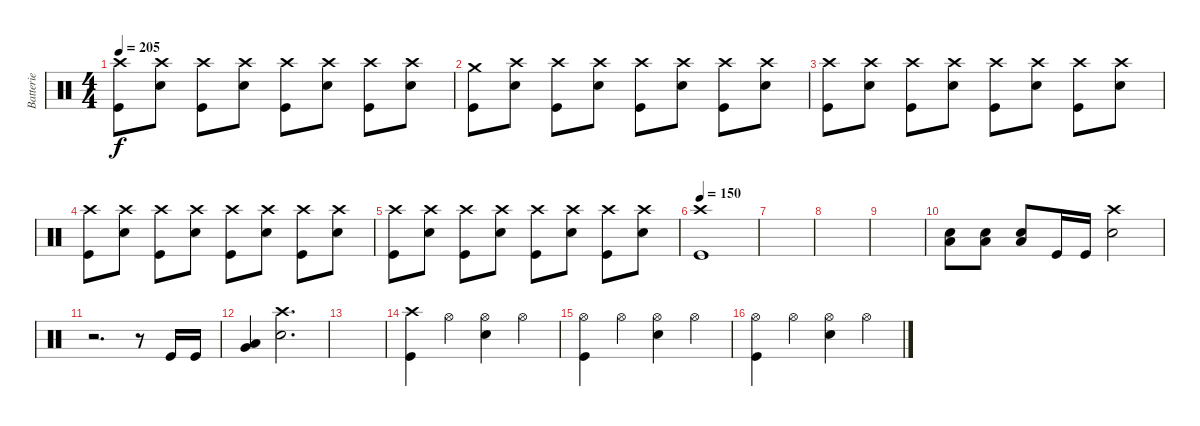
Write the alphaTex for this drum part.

\track ("Batterie" "Batterie") {instrument percussion}
\staff {score}
\articulation defaults
\ts (4 4)
\tempo 205
\clef neutral
\ks c
("Crash high (hit)" "Kick (hit)").8{dy f} ("Crash high (hit)" "Electric Snare (hit)").8 ("Crash high (hit)" "Kick (hit)").8 ("Crash high (hit)" "Electric Snare (hit)").8 ("Crash high (hit)" "Kick (hit)").8 ("Crash high (hit)" "Electric Snare (hit)").8 ("Crash high (hit)" "Kick (hit)").8 ("Crash high (hit)" "Electric Snare (hit)").8 |
("Crash medium (hit)" "Kick (hit)").8 ("Crash high (hit)" "Electric Snare (hit)").8 ("Crash high (hit)" "Kick (hit)").8 ("Crash high (hit)" "Electric Snare (hit)").8 ("Crash high (hit)" "Kick (hit)").8 ("Crash high (hit)" "Electric Snare (hit)").8 ("Crash high (hit)" "Kick (hit)").8 ("Crash high (hit)" "Electric Snare (hit)").8 |
("Crash high (hit)" "Kick (hit)").8 ("Crash high (hit)" "Electric Snare (hit)").8 ("Crash high (hit)" "Kick (hit)").8 ("Crash high (hit)" "Electric Snare (hit)").8 ("Crash high (hit)" "Kick (hit)").8 ("Crash high (hit)" "Electric Snare (hit)").8 ("Crash high (hit)" "Kick (hit)").8 ("Crash high (hit)" "Electric Snare (hit)").8 |
("Crash high (hit)" "Kick (hit)").8 ("Crash high (hit)" "Electric Snare (hit)").8 ("Crash high (hit)" "Kick (hit)").8 ("Crash high (hit)" "Electric Snare (hit)").8 ("Crash high (hit)" "Kick (hit)").8 ("Crash high (hit)" "Electric Snare (hit)").8 ("Crash high (hit)" "Kick (hit)").8 ("Crash high (hit)" "Electric Snare (hit)").8 |
("Crash high (hit)" "Kick (hit)").8 ("Crash high (hit)" "Electric Snare (hit)").8 ("Crash high (hit)" "Kick (hit)").8 ("Crash high (hit)" "Electric Snare (hit)").8 ("Crash high (hit)" "Kick (hit)").8 ("Crash high (hit)" "Electric Snare (hit)").8 ("Crash high (hit)" "Kick (hit)").8 ("Crash high (hit)" "Electric Snare (hit)").8 |
\tempo 150
("Crash high (hit)" "Kick (hit)").1 |
|
|
|
("Electric Snare (hit)" "Low Floor Tom (hit)").8 ("Electric Snare (hit)" "Low Floor Tom (hit)").8 ("Electric Snare (hit)" "Low Floor Tom (hit)").8 "Kick (hit)".16 "Kick (hit)".16 ("Crash high (hit)" "Electric Snare (hit)").2 |
r.2{d} r.8 "Kick (hit)".16 "Kick (hit)".16 |
("Very Low Tom (hit)" "Low Floor Tom (hit)").4 ("Crash high (hit)" "Electric Snare (hit)").2{d} |
|
("Crash high (hit)" "Kick (hit)").4 "Hi-Hat (open)".4 ("Hi-Hat (open)" "Electric Snare (hit)").4 "Hi-Hat (open)".4 |
("Hi-Hat (open)" "Kick (hit)").4 "Hi-Hat (open)".4 ("Hi-Hat (open)" "Electric Snare (hit)").4 "Hi-Hat (open)".4 |
("Hi-Hat (open)" "Kick (hit)").4 "Hi-Hat (open)".4 ("Hi-Hat (open)" "Electric Snare (hit)").4 "Hi-Hat (open)".4
